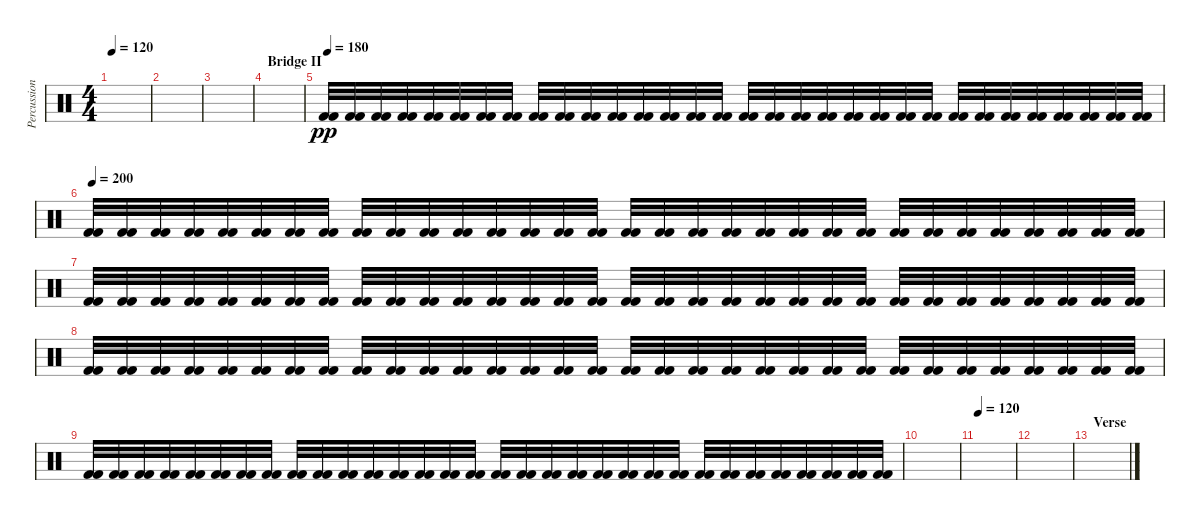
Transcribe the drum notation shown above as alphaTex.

\track ("Percussions" "Percussion") {instrument percussion}
\staff {score}
\articulation defaults
\ts (4 4)
\tempo 120
\clef neutral
\ks c
|
|
|
\section ("" "Bridge II")
|
\tempo 180
("Kick (hit) 2" "Kick (hit) 2").32{dy pp} ("Kick (hit) 2" "Kick (hit) 2").32 ("Kick (hit) 2" "Kick (hit) 2").32 ("Kick (hit) 2" "Kick (hit) 2").32 ("Kick (hit) 2" "Kick (hit) 2").32 ("Kick (hit) 2" "Kick (hit) 2").32 ("Kick (hit) 2" "Kick (hit) 2").32 ("Kick (hit) 2" "Kick (hit) 2").32 ("Kick (hit) 2" "Kick (hit) 2").32 ("Kick (hit) 2" "Kick (hit) 2").32 ("Kick (hit) 2" "Kick (hit) 2").32 ("Kick (hit) 2" "Kick (hit) 2").32 ("Kick (hit) 2" "Kick (hit) 2").32 ("Kick (hit) 2" "Kick (hit) 2").32 ("Kick (hit) 2" "Kick (hit) 2").32 ("Kick (hit) 2" "Kick (hit) 2").32 ("Kick (hit) 2" "Kick (hit) 2").32 ("Kick (hit) 2" "Kick (hit) 2").32 ("Kick (hit) 2" "Kick (hit) 2").32 ("Kick (hit) 2" "Kick (hit) 2").32 ("Kick (hit) 2" "Kick (hit) 2").32 ("Kick (hit) 2" "Kick (hit) 2").32 ("Kick (hit) 2" "Kick (hit) 2").32 ("Kick (hit) 2" "Kick (hit) 2").32 ("Kick (hit) 2" "Kick (hit) 2").32 ("Kick (hit) 2" "Kick (hit) 2").32 ("Kick (hit) 2" "Kick (hit) 2").32 ("Kick (hit) 2" "Kick (hit) 2").32 ("Kick (hit) 2" "Kick (hit) 2").32 ("Kick (hit) 2" "Kick (hit) 2").32 ("Kick (hit) 2" "Kick (hit) 2").32 ("Kick (hit) 2" "Kick (hit) 2").32 |
\tempo 200
("Kick (hit) 2" "Kick (hit) 2").32 ("Kick (hit) 2" "Kick (hit) 2").32 ("Kick (hit) 2" "Kick (hit) 2").32 ("Kick (hit) 2" "Kick (hit) 2").32 ("Kick (hit) 2" "Kick (hit) 2").32 ("Kick (hit) 2" "Kick (hit) 2").32 ("Kick (hit) 2" "Kick (hit) 2").32 ("Kick (hit) 2" "Kick (hit) 2").32 ("Kick (hit) 2" "Kick (hit) 2").32 ("Kick (hit) 2" "Kick (hit) 2").32 ("Kick (hit) 2" "Kick (hit) 2").32 ("Kick (hit) 2" "Kick (hit) 2").32 ("Kick (hit) 2" "Kick (hit) 2").32 ("Kick (hit) 2" "Kick (hit) 2").32 ("Kick (hit) 2" "Kick (hit) 2").32 ("Kick (hit) 2" "Kick (hit) 2").32 ("Kick (hit) 2" "Kick (hit) 2").32 ("Kick (hit) 2" "Kick (hit) 2").32 ("Kick (hit) 2" "Kick (hit) 2").32 ("Kick (hit) 2" "Kick (hit) 2").32 ("Kick (hit) 2" "Kick (hit) 2").32 ("Kick (hit) 2" "Kick (hit) 2").32 ("Kick (hit) 2" "Kick (hit) 2").32 ("Kick (hit) 2" "Kick (hit) 2").32 ("Kick (hit) 2" "Kick (hit) 2").32 ("Kick (hit) 2" "Kick (hit) 2").32 ("Kick (hit) 2" "Kick (hit) 2").32 ("Kick (hit) 2" "Kick (hit) 2").32 ("Kick (hit) 2" "Kick (hit) 2").32 ("Kick (hit) 2" "Kick (hit) 2").32 ("Kick (hit) 2" "Kick (hit) 2").32 ("Kick (hit) 2" "Kick (hit) 2").32 |
("Kick (hit) 2" "Kick (hit) 2").32 ("Kick (hit) 2" "Kick (hit) 2").32 ("Kick (hit) 2" "Kick (hit) 2").32 ("Kick (hit) 2" "Kick (hit) 2").32 ("Kick (hit) 2" "Kick (hit) 2").32 ("Kick (hit) 2" "Kick (hit) 2").32 ("Kick (hit) 2" "Kick (hit) 2").32 ("Kick (hit) 2" "Kick (hit) 2").32 ("Kick (hit) 2" "Kick (hit) 2").32 ("Kick (hit) 2" "Kick (hit) 2").32 ("Kick (hit) 2" "Kick (hit) 2").32 ("Kick (hit) 2" "Kick (hit) 2").32 ("Kick (hit) 2" "Kick (hit) 2").32 ("Kick (hit) 2" "Kick (hit) 2").32 ("Kick (hit) 2" "Kick (hit) 2").32 ("Kick (hit) 2" "Kick (hit) 2").32 ("Kick (hit) 2" "Kick (hit) 2").32 ("Kick (hit) 2" "Kick (hit) 2").32 ("Kick (hit) 2" "Kick (hit) 2").32 ("Kick (hit) 2" "Kick (hit) 2").32 ("Kick (hit) 2" "Kick (hit) 2").32 ("Kick (hit) 2" "Kick (hit) 2").32 ("Kick (hit) 2" "Kick (hit) 2").32 ("Kick (hit) 2" "Kick (hit) 2").32 ("Kick (hit) 2" "Kick (hit) 2").32 ("Kick (hit) 2" "Kick (hit) 2").32 ("Kick (hit) 2" "Kick (hit) 2").32 ("Kick (hit) 2" "Kick (hit) 2").32 ("Kick (hit) 2" "Kick (hit) 2").32 ("Kick (hit) 2" "Kick (hit) 2").32 ("Kick (hit) 2" "Kick (hit) 2").32 ("Kick (hit) 2" "Kick (hit) 2").32 |
("Kick (hit) 2" "Kick (hit) 2").32 ("Kick (hit) 2" "Kick (hit) 2").32 ("Kick (hit) 2" "Kick (hit) 2").32 ("Kick (hit) 2" "Kick (hit) 2").32 ("Kick (hit) 2" "Kick (hit) 2").32 ("Kick (hit) 2" "Kick (hit) 2").32 ("Kick (hit) 2" "Kick (hit) 2").32 ("Kick (hit) 2" "Kick (hit) 2").32 ("Kick (hit) 2" "Kick (hit) 2").32 ("Kick (hit) 2" "Kick (hit) 2").32 ("Kick (hit) 2" "Kick (hit) 2").32 ("Kick (hit) 2" "Kick (hit) 2").32 ("Kick (hit) 2" "Kick (hit) 2").32 ("Kick (hit) 2" "Kick (hit) 2").32 ("Kick (hit) 2" "Kick (hit) 2").32 ("Kick (hit) 2" "Kick (hit) 2").32 ("Kick (hit) 2" "Kick (hit) 2").32 ("Kick (hit) 2" "Kick (hit) 2").32 ("Kick (hit) 2" "Kick (hit) 2").32 ("Kick (hit) 2" "Kick (hit) 2").32 ("Kick (hit) 2" "Kick (hit) 2").32 ("Kick (hit) 2" "Kick (hit) 2").32 ("Kick (hit) 2" "Kick (hit) 2").32 ("Kick (hit) 2" "Kick (hit) 2").32 ("Kick (hit) 2" "Kick (hit) 2").32 ("Kick (hit) 2" "Kick (hit) 2").32 ("Kick (hit) 2" "Kick (hit) 2").32 ("Kick (hit) 2" "Kick (hit) 2").32 ("Kick (hit) 2" "Kick (hit) 2").32 ("Kick (hit) 2" "Kick (hit) 2").32 ("Kick (hit) 2" "Kick (hit) 2").32 ("Kick (hit) 2" "Kick (hit) 2").32 |
("Kick (hit) 2" "Kick (hit) 2").32 ("Kick (hit) 2" "Kick (hit) 2").32 ("Kick (hit) 2" "Kick (hit) 2").32 ("Kick (hit) 2" "Kick (hit) 2").32 ("Kick (hit) 2" "Kick (hit) 2").32 ("Kick (hit) 2" "Kick (hit) 2").32 ("Kick (hit) 2" "Kick (hit) 2").32 ("Kick (hit) 2" "Kick (hit) 2").32 ("Kick (hit) 2" "Kick (hit) 2").32 ("Kick (hit) 2" "Kick (hit) 2").32 ("Kick (hit) 2" "Kick (hit) 2").32 ("Kick (hit) 2" "Kick (hit) 2").32 ("Kick (hit) 2" "Kick (hit) 2").32 ("Kick (hit) 2" "Kick (hit) 2").32 ("Kick (hit) 2" "Kick (hit) 2").32 ("Kick (hit) 2" "Kick (hit) 2").32 ("Kick (hit) 2" "Kick (hit) 2").32 ("Kick (hit) 2" "Kick (hit) 2").32 ("Kick (hit) 2" "Kick (hit) 2").32 ("Kick (hit) 2" "Kick (hit) 2").32 ("Kick (hit) 2" "Kick (hit) 2").32 ("Kick (hit) 2" "Kick (hit) 2").32 ("Kick (hit) 2" "Kick (hit) 2").32 ("Kick (hit) 2" "Kick (hit) 2").32 ("Kick (hit) 2" "Kick (hit) 2").32 ("Kick (hit) 2" "Kick (hit) 2").32 ("Kick (hit) 2" "Kick (hit) 2").32 ("Kick (hit) 2" "Kick (hit) 2").32 ("Kick (hit) 2" "Kick (hit) 2").32 ("Kick (hit) 2" "Kick (hit) 2").32 ("Kick (hit) 2" "Kick (hit) 2").32 ("Kick (hit) 2" "Kick (hit) 2").32 |
|
\tempo 120
|
|
\section ("" "Verse")
